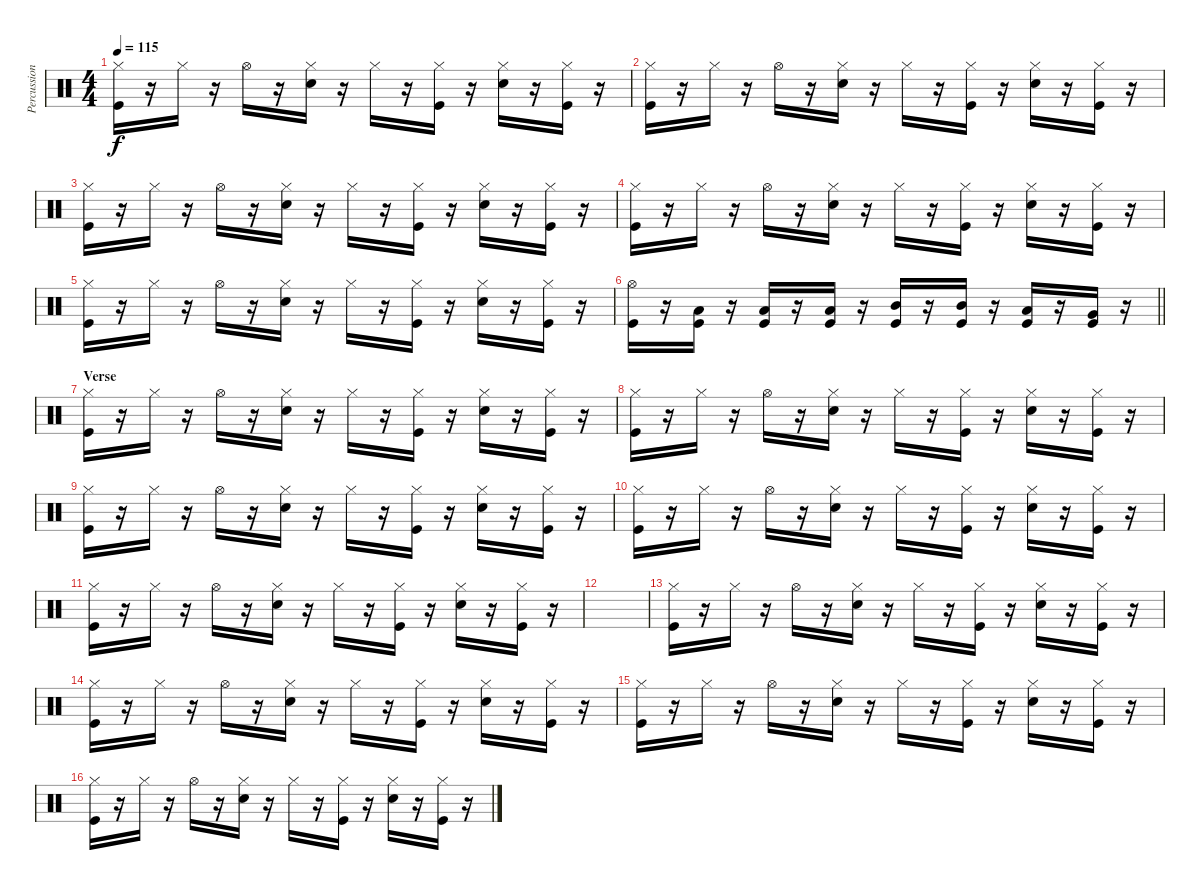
\track ("Percussion" "Percussion") {instrument percussion}
\staff {score}
\articulation defaults
\ts (4 4)
\tempo 115
\clef neutral
\ks c
("Hi-Hat (closed)" "Kick (hit)").16{dy f} r.16 "Hi-Hat (closed)".16 r.16 "Hi-Hat (open)".16 r.16 ("Hi-Hat (closed)" "Snare (hit) 2").16 r.16 "Hi-Hat (closed)".16 r.16 ("Hi-Hat (closed)" "Kick (hit)").16 r.16 ("Hi-Hat (closed)" "Snare (hit) 2").16 r.16 ("Hi-Hat (closed)" "Kick (hit)").16 r.16 |
("Hi-Hat (closed)" "Kick (hit)").16 r.16 "Hi-Hat (closed)".16 r.16 "Hi-Hat (open)".16 r.16 ("Hi-Hat (closed)" "Snare (hit) 2").16 r.16 "Hi-Hat (closed)".16 r.16 ("Hi-Hat (closed)" "Kick (hit)").16 r.16 ("Hi-Hat (closed)" "Snare (hit) 2").16 r.16 ("Hi-Hat (closed)" "Kick (hit)").16 r.16 |
("Hi-Hat (closed)" "Kick (hit)").16 r.16 "Hi-Hat (closed)".16 r.16 "Hi-Hat (open)".16 r.16 ("Hi-Hat (closed)" "Snare (hit) 2").16 r.16 "Hi-Hat (closed)".16 r.16 ("Hi-Hat (closed)" "Kick (hit)").16 r.16 ("Hi-Hat (closed)" "Snare (hit) 2").16 r.16 ("Hi-Hat (closed)" "Kick (hit)").16 r.16 |
("Hi-Hat (closed)" "Kick (hit)").16 r.16 "Hi-Hat (closed)".16 r.16 "Hi-Hat (open)".16 r.16 ("Hi-Hat (closed)" "Snare (hit) 2").16 r.16 "Hi-Hat (closed)".16 r.16 ("Hi-Hat (closed)" "Kick (hit)").16 r.16 ("Hi-Hat (closed)" "Snare (hit) 2").16 r.16 ("Hi-Hat (closed)" "Kick (hit)").16 r.16 |
("Hi-Hat (closed)" "Kick (hit)").16 r.16 "Hi-Hat (closed)".16 r.16 "Hi-Hat (open)".16 r.16 ("Hi-Hat (closed)" "Snare (hit) 2").16 r.16 "Hi-Hat (closed)".16 r.16 ("Hi-Hat (closed)" "Kick (hit)").16 r.16 ("Hi-Hat (closed)" "Snare (hit) 2").16 r.16 ("Hi-Hat (closed)" "Kick (hit)").16 r.16 |
\barLineRight lightlight
("Hi-Hat (open)" "Kick (hit)").16 r.16 ("Low Tom (hit)" "Kick (hit)").16 r.16 ("Low Tom (hit)" "Kick (hit)").16 r.16 ("Low Tom (hit)" "Kick (hit)").16 r.16 ("Mid Tom (hit)" "Kick (hit)").16 r.16 ("Mid Tom (hit)" "Kick (hit)").16 r.16 ("Low Tom (hit)" "Kick (hit)").16 r.16 ("Very Low Tom (hit)" "Kick (hit)").16 r.16 |
\section ("" "Verse")
("Hi-Hat (closed)" "Kick (hit)").16 r.16 "Hi-Hat (closed)".16 r.16 "Hi-Hat (open)".16 r.16 ("Hi-Hat (closed)" "Snare (hit) 2").16 r.16 "Hi-Hat (closed)".16 r.16 ("Hi-Hat (closed)" "Kick (hit)").16 r.16 ("Hi-Hat (closed)" "Snare (hit) 2").16 r.16 ("Hi-Hat (closed)" "Kick (hit)").16 r.16 |
("Hi-Hat (closed)" "Kick (hit)").16 r.16 "Hi-Hat (closed)".16 r.16 "Hi-Hat (open)".16 r.16 ("Hi-Hat (closed)" "Snare (hit) 2").16 r.16 "Hi-Hat (closed)".16 r.16 ("Hi-Hat (closed)" "Kick (hit)").16 r.16 ("Hi-Hat (closed)" "Snare (hit) 2").16 r.16 ("Hi-Hat (closed)" "Kick (hit)").16 r.16 |
("Hi-Hat (closed)" "Kick (hit)").16 r.16 "Hi-Hat (closed)".16 r.16 "Hi-Hat (open)".16 r.16 ("Hi-Hat (closed)" "Snare (hit) 2").16 r.16 "Hi-Hat (closed)".16 r.16 ("Hi-Hat (closed)" "Kick (hit)").16 r.16 ("Hi-Hat (closed)" "Snare (hit) 2").16 r.16 ("Hi-Hat (closed)" "Kick (hit)").16 r.16 |
("Hi-Hat (closed)" "Kick (hit)").16 r.16 "Hi-Hat (closed)".16 r.16 "Hi-Hat (open)".16 r.16 ("Hi-Hat (closed)" "Snare (hit) 2").16 r.16 "Hi-Hat (closed)".16 r.16 ("Hi-Hat (closed)" "Kick (hit)").16 r.16 ("Hi-Hat (closed)" "Snare (hit) 2").16 r.16 ("Hi-Hat (closed)" "Kick (hit)").16 r.16 |
("Hi-Hat (closed)" "Kick (hit)").16 r.16 "Hi-Hat (closed)".16 r.16 "Hi-Hat (open)".16 r.16 ("Hi-Hat (closed)" "Snare (hit) 2").16 r.16 "Hi-Hat (closed)".16 r.16 ("Hi-Hat (closed)" "Kick (hit)").16 r.16 ("Hi-Hat (closed)" "Snare (hit) 2").16 r.16 ("Hi-Hat (closed)" "Kick (hit)").16 r.16 |
|
("Hi-Hat (closed)" "Kick (hit)").16 r.16 "Hi-Hat (closed)".16 r.16 "Hi-Hat (open)".16 r.16 ("Hi-Hat (closed)" "Snare (hit) 2").16 r.16 "Hi-Hat (closed)".16 r.16 ("Hi-Hat (closed)" "Kick (hit)").16 r.16 ("Hi-Hat (closed)" "Snare (hit) 2").16 r.16 ("Hi-Hat (closed)" "Kick (hit)").16 r.16 |
("Hi-Hat (closed)" "Kick (hit)").16 r.16 "Hi-Hat (closed)".16 r.16 "Hi-Hat (open)".16 r.16 ("Hi-Hat (closed)" "Snare (hit) 2").16 r.16 "Hi-Hat (closed)".16 r.16 ("Hi-Hat (closed)" "Kick (hit)").16 r.16 ("Hi-Hat (closed)" "Snare (hit) 2").16 r.16 ("Hi-Hat (closed)" "Kick (hit)").16 r.16 |
("Hi-Hat (closed)" "Kick (hit)").16 r.16 "Hi-Hat (closed)".16 r.16 "Hi-Hat (open)".16 r.16 ("Hi-Hat (closed)" "Snare (hit) 2").16 r.16 "Hi-Hat (closed)".16 r.16 ("Hi-Hat (closed)" "Kick (hit)").16 r.16 ("Hi-Hat (closed)" "Snare (hit) 2").16 r.16 ("Hi-Hat (closed)" "Kick (hit)").16 r.16 |
("Hi-Hat (closed)" "Kick (hit)").16 r.16 "Hi-Hat (closed)".16 r.16 "Hi-Hat (open)".16 r.16 ("Hi-Hat (closed)" "Snare (hit) 2").16 r.16 "Hi-Hat (closed)".16 r.16 ("Hi-Hat (closed)" "Kick (hit)").16 r.16 ("Hi-Hat (closed)" "Snare (hit) 2").16 r.16 ("Hi-Hat (closed)" "Kick (hit)").16 r.16
